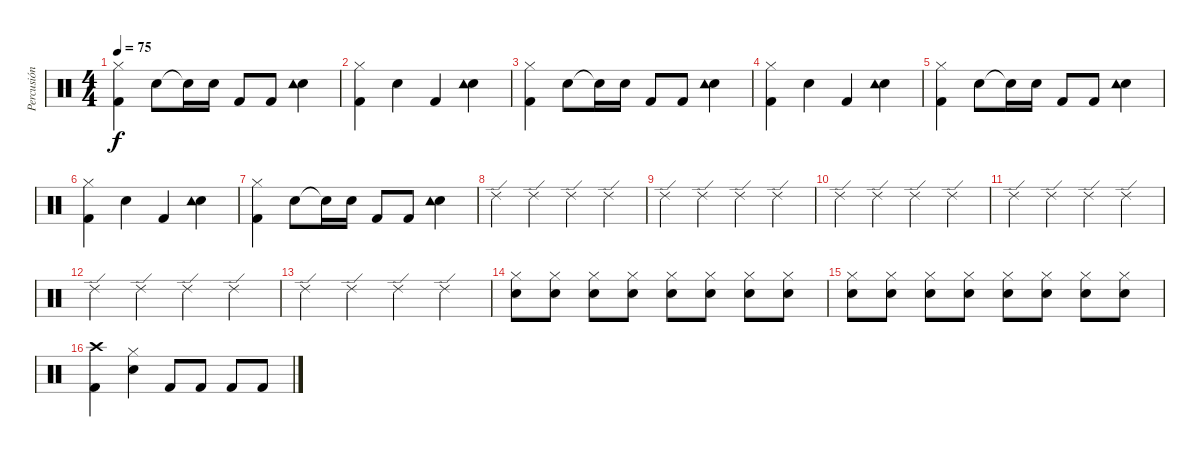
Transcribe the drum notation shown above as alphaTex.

\track ("Percusión" "Percusión") {instrument percussion}
\staff {score}
\articulation defaults
\ts (4 4)
\tempo 75
\clef neutral
\ks c
("Kick (hit) 2" "Hi-Hat (closed)").4{dy f} "Snare (hit) 2".8 "Snare (hit)"{t}.16 "Snare (hit) 2".16 "Kick (hit) 2".8 "Kick (hit) 2".8 ("Snare (hit) 2" "Tambourine (hit)").4 |
("Kick (hit) 2" "Hi-Hat (closed)").4 "Snare (hit) 2".4 "Kick (hit) 2".4 ("Snare (hit) 2" "Tambourine (hit)").4 |
("Kick (hit) 2" "Hi-Hat (closed)").4 "Snare (hit) 2".8 "Snare (hit)"{t}.16 "Snare (hit) 2".16 "Kick (hit) 2".8 "Kick (hit) 2".8 ("Snare (hit) 2" "Tambourine (hit)").4 |
("Kick (hit) 2" "Hi-Hat (closed)").4 "Snare (hit) 2".4 "Kick (hit) 2".4 ("Snare (hit) 2" "Tambourine (hit)").4 |
("Kick (hit) 2" "Hi-Hat (closed)").4 "Snare (hit) 2".8 "Snare (hit)"{t}.16 "Snare (hit) 2".16 "Kick (hit) 2".8 "Kick (hit) 2".8 ("Snare (hit) 2" "Tambourine (hit)").4 |
("Kick (hit) 2" "Hi-Hat (closed)").4 "Snare (hit) 2".4 "Kick (hit) 2".4 ("Snare (hit) 2" "Tambourine (hit)").4 |
("Kick (hit) 2" "Hi-Hat (closed)").4 "Snare (hit) 2".8 "Snare (hit)"{t}.16 "Snare (hit) 2".16 "Kick (hit) 2".8 "Kick (hit) 2".8 ("Snare (hit) 2" "Tambourine (hit)").4 |
"Ride (edge) 2".4 "Ride (edge) 2".4 "Ride (edge) 2".4 "Ride (edge) 2".4 |
"Ride (edge) 2".4 "Ride (edge) 2".4 "Ride (edge) 2".4 "Ride (edge) 2".4 |
"Ride (edge) 2".4 "Ride (edge) 2".4 "Ride (edge) 2".4 "Ride (edge) 2".4 |
"Ride (edge) 2".4 "Ride (edge) 2".4 "Ride (edge) 2".4 "Ride (edge) 2".4 |
"Ride (edge) 2".4 "Ride (edge) 2".4 "Ride (edge) 2".4 "Ride (edge) 2".4 |
"Ride (edge) 2".4 "Ride (edge) 2".4 "Ride (edge) 2".4 "Ride (edge) 2".4 |
("Snare (hit) 2" "Hi-Hat (closed)").8{volume 8} ("Snare (hit) 2" "Hi-Hat (closed)").8 ("Snare (hit) 2" "Hi-Hat (closed)").8 ("Snare (hit) 2" "Hi-Hat (closed)").8 ("Snare (hit) 2" "Hi-Hat (closed)").8 ("Snare (hit) 2" "Hi-Hat (closed)").8 ("Snare (hit) 2" "Hi-Hat (closed)").8 ("Snare (hit) 2" "Hi-Hat (closed)").8 |
("Snare (hit) 2" "Hi-Hat (closed)").8{volume 10} ("Snare (hit) 2" "Hi-Hat (closed)").8 ("Snare (hit) 2" "Hi-Hat (closed)").8 ("Snare (hit) 2" "Hi-Hat (closed)").8 ("Snare (hit) 2" "Hi-Hat (closed)").8 ("Snare (hit) 2" "Hi-Hat (closed)").8 ("Snare (hit) 2" "Hi-Hat (closed)").8 ("Snare (hit) 2" "Hi-Hat (closed)").8 |
("Crash high (hit)" "Kick (hit) 2").4{volume 16} ("Hi-Hat (closed)" "Snare (hit) 2").4 "Kick (hit) 2".8{volume 10} "Kick (hit) 2".8 "Kick (hit) 2".8 "Kick (hit) 2".8
